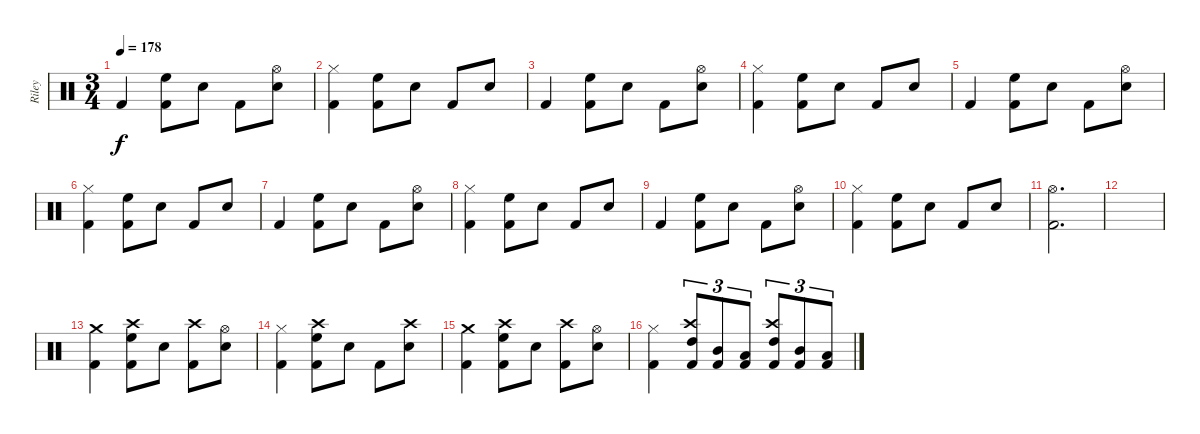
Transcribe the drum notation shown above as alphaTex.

\track ("Riley" "Riley") {instrument percussion}
\staff {score}
\articulation defaults
\ts (3 4)
\tempo 178
\clef neutral
\ks c "Kick (hit) 2".4{dy f}
("High Floor Tom (hit)" "Kick (hit) 2").8 "Snare (hit) 2".8 "Kick (hit) 2".8 ("Hi-Hat (open)" "Snare (hit) 2").8 |
("Hi-Hat (closed)" "Kick (hit) 2").4 ("High Floor Tom (hit)" "Kick (hit) 2").8 "Snare (hit) 2".8 "Kick (hit) 2".8 "Snare (hit) 2".8 |
"Kick (hit) 2".4 ("High Floor Tom (hit)" "Kick (hit) 2").8 "Snare (hit) 2".8 "Kick (hit) 2".8 ("Hi-Hat (open)" "Snare (hit) 2").8 |
("Hi-Hat (closed)" "Kick (hit) 2").4 ("High Floor Tom (hit)" "Kick (hit) 2").8 "Snare (hit) 2".8 "Kick (hit) 2".8 "Snare (hit) 2".8 |
"Kick (hit) 2".4 ("High Floor Tom (hit)" "Kick (hit) 2").8 "Snare (hit) 2".8 "Kick (hit) 2".8 ("Hi-Hat (open)" "Snare (hit) 2").8 |
("Hi-Hat (closed)" "Kick (hit) 2").4 ("High Floor Tom (hit)" "Kick (hit) 2").8 "Snare (hit) 2".8 "Kick (hit) 2".8 "Snare (hit) 2".8 |
"Kick (hit) 2".4 ("High Floor Tom (hit)" "Kick (hit) 2").8 "Snare (hit) 2".8 "Kick (hit) 2".8 ("Hi-Hat (open)" "Snare (hit) 2").8 |
("Hi-Hat (closed)" "Kick (hit) 2").4 ("High Floor Tom (hit)" "Kick (hit) 2").8 "Snare (hit) 2".8 "Kick (hit) 2".8 "Snare (hit) 2".8 |
"Kick (hit) 2".4 ("High Floor Tom (hit)" "Kick (hit) 2").8 "Snare (hit) 2".8 "Kick (hit) 2".8 ("Hi-Hat (open)" "Snare (hit) 2").8 |
("Hi-Hat (closed)" "Kick (hit) 2").4 ("High Floor Tom (hit)" "Kick (hit) 2").8 "Snare (hit) 2".8 "Kick (hit) 2".8 "Snare (hit) 2".8 |
("Hi-Hat (open)" "Kick (hit) 2").2{d} |
|
("Crash medium (hit)" "Kick (hit) 2").4 ("Crash high (hit)" "High Floor Tom (hit)" "Kick (hit) 2").8 "Snare (hit) 2".8 ("Crash high (hit)" "Kick (hit) 2").8 ("Hi-Hat (open)" "Snare (hit) 2").8 |
("Hi-Hat (closed)" "Kick (hit) 2").4 ("Crash high (hit)" "High Floor Tom (hit)" "Kick (hit) 2").8 "Snare (hit) 2".8 "Kick (hit) 2".8 ("Crash high (hit)" "Snare (hit) 2").8 |
("Crash medium (hit)" "Kick (hit) 2").4 ("Crash high (hit)" "High Floor Tom (hit)" "Kick (hit) 2").8 "Snare (hit) 2".8 ("Crash high (hit)" "Kick (hit) 2").8 ("Hi-Hat (open)" "Snare (hit) 2").8 |
("Hi-Hat (closed)" "Kick (hit) 2").4 ("Crash high (hit)" "High Tom (hit)" "Kick (hit) 2").8{tu (3 2)} ("Mid Tom (hit)" "Kick (hit) 2").8{tu (3 2)} ("Low Tom (hit)" "Kick (hit) 2").8{tu (3 2)} ("Crash high (hit)" "High Tom (hit)" "Kick (hit) 2").8{tu (3 2)} ("Mid Tom (hit)" "Kick (hit) 2").8{tu (3 2)} ("Low Tom (hit)" "Kick (hit) 2").8{tu (3 2)}
